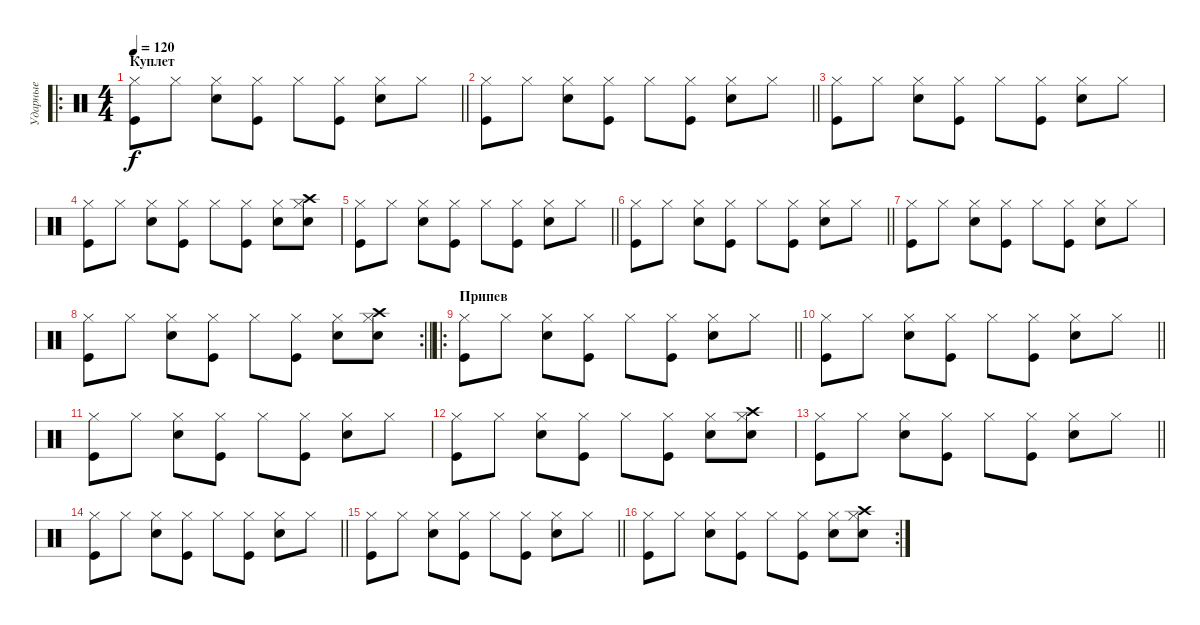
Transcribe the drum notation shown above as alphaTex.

\track ("Ударные" "Ударные") {instrument percussion}
\staff {score}
\articulation defaults
\ro
\ts (4 4)
\section ("" "Куплет")
\tempo 120
\clef neutral
\barLineRight lightlight
\ks c
("Kick (hit)" "Hi-Hat (closed)").8{dy f} "Hi-Hat (closed)".8 ("Electric Snare (hit)" "Hi-Hat (closed)").8 ("Kick (hit)" "Hi-Hat (closed)").8 "Hi-Hat (closed)".8 ("Kick (hit)" "Hi-Hat (closed)").8 ("Electric Snare (hit)" "Hi-Hat (closed)").8 "Hi-Hat (closed)".8 |
\barLineRight lightlight
("Kick (hit)" "Hi-Hat (closed)").8 "Hi-Hat (closed)".8 ("Electric Snare (hit)" "Hi-Hat (closed)").8 ("Kick (hit)" "Hi-Hat (closed)").8 "Hi-Hat (closed)".8 ("Kick (hit)" "Hi-Hat (closed)").8 ("Electric Snare (hit)" "Hi-Hat (closed)").8 "Hi-Hat (closed)".8 |
("Kick (hit)" "Hi-Hat (closed)").8 "Hi-Hat (closed)".8 ("Electric Snare (hit)" "Hi-Hat (closed)").8 ("Kick (hit)" "Hi-Hat (closed)").8 "Hi-Hat (closed)".8 ("Kick (hit)" "Hi-Hat (closed)").8 ("Electric Snare (hit)" "Hi-Hat (closed)").8 "Hi-Hat (closed)".8 |
("Kick (hit)" "Hi-Hat (closed)").8 "Hi-Hat (closed)".8 ("Electric Snare (hit)" "Hi-Hat (closed)").8 ("Kick (hit)" "Hi-Hat (closed)").8 "Hi-Hat (closed)".8 ("Kick (hit)" "Hi-Hat (closed)").8 ("Electric Snare (hit)" "Hi-Hat (closed)").8 ("Snare (hit) 2" "Crash high (hit)" "Hi-Hat (closed)").8 |
\barLineRight lightlight
("Kick (hit)" "Hi-Hat (closed)").8 "Hi-Hat (closed)".8 ("Electric Snare (hit)" "Hi-Hat (closed)").8 ("Kick (hit)" "Hi-Hat (closed)").8 "Hi-Hat (closed)".8 ("Kick (hit)" "Hi-Hat (closed)").8 ("Electric Snare (hit)" "Hi-Hat (closed)").8 "Hi-Hat (closed)".8 |
\barLineRight lightlight
("Kick (hit)" "Hi-Hat (closed)").8 "Hi-Hat (closed)".8 ("Electric Snare (hit)" "Hi-Hat (closed)").8 ("Kick (hit)" "Hi-Hat (closed)").8 "Hi-Hat (closed)".8 ("Kick (hit)" "Hi-Hat (closed)").8 ("Electric Snare (hit)" "Hi-Hat (closed)").8 "Hi-Hat (closed)".8 |
("Kick (hit)" "Hi-Hat (closed)").8 "Hi-Hat (closed)".8 ("Electric Snare (hit)" "Hi-Hat (closed)").8 ("Kick (hit)" "Hi-Hat (closed)").8 "Hi-Hat (closed)".8 ("Kick (hit)" "Hi-Hat (closed)").8 ("Electric Snare (hit)" "Hi-Hat (closed)").8 "Hi-Hat (closed)".8 |
\rc 2
\barLineRight lightlight
("Kick (hit)" "Hi-Hat (closed)").8 "Hi-Hat (closed)".8 ("Electric Snare (hit)" "Hi-Hat (closed)").8 ("Kick (hit)" "Hi-Hat (closed)").8 "Hi-Hat (closed)".8 ("Kick (hit)" "Hi-Hat (closed)").8 ("Electric Snare (hit)" "Hi-Hat (closed)").8 ("Snare (hit) 2" "Crash high (hit)" "Hi-Hat (closed)").8 |
\ro
\section ("" "Припев")
\barLineRight lightlight
("Kick (hit)" "Hi-Hat (closed)").8 "Hi-Hat (closed)".8 ("Electric Snare (hit)" "Hi-Hat (closed)").8 ("Kick (hit)" "Hi-Hat (closed)").8 "Hi-Hat (closed)".8 ("Kick (hit)" "Hi-Hat (closed)").8 ("Electric Snare (hit)" "Hi-Hat (closed)").8 "Hi-Hat (closed)".8 |
\barLineRight lightlight
("Kick (hit)" "Hi-Hat (closed)").8 "Hi-Hat (closed)".8 ("Electric Snare (hit)" "Hi-Hat (closed)").8 ("Kick (hit)" "Hi-Hat (closed)").8 "Hi-Hat (closed)".8 ("Kick (hit)" "Hi-Hat (closed)").8 ("Electric Snare (hit)" "Hi-Hat (closed)").8 "Hi-Hat (closed)".8 |
("Kick (hit)" "Hi-Hat (closed)").8 "Hi-Hat (closed)".8 ("Electric Snare (hit)" "Hi-Hat (closed)").8 ("Kick (hit)" "Hi-Hat (closed)").8 "Hi-Hat (closed)".8 ("Kick (hit)" "Hi-Hat (closed)").8 ("Electric Snare (hit)" "Hi-Hat (closed)").8 "Hi-Hat (closed)".8 |
("Kick (hit)" "Hi-Hat (closed)").8 "Hi-Hat (closed)".8 ("Electric Snare (hit)" "Hi-Hat (closed)").8 ("Kick (hit)" "Hi-Hat (closed)").8 "Hi-Hat (closed)".8 ("Kick (hit)" "Hi-Hat (closed)").8 ("Electric Snare (hit)" "Hi-Hat (closed)").8 ("Snare (hit) 2" "Crash high (hit)" "Hi-Hat (closed)").8 |
\barLineRight lightlight
("Kick (hit)" "Hi-Hat (closed)").8 "Hi-Hat (closed)".8 ("Electric Snare (hit)" "Hi-Hat (closed)").8 ("Kick (hit)" "Hi-Hat (closed)").8 "Hi-Hat (closed)".8 ("Kick (hit)" "Hi-Hat (closed)").8 ("Electric Snare (hit)" "Hi-Hat (closed)").8 "Hi-Hat (closed)".8 |
\barLineRight lightlight
("Kick (hit)" "Hi-Hat (closed)").8 "Hi-Hat (closed)".8 ("Electric Snare (hit)" "Hi-Hat (closed)").8 ("Kick (hit)" "Hi-Hat (closed)").8 "Hi-Hat (closed)".8 ("Kick (hit)" "Hi-Hat (closed)").8 ("Electric Snare (hit)" "Hi-Hat (closed)").8 "Hi-Hat (closed)".8 |
\barLineRight lightlight
("Kick (hit)" "Hi-Hat (closed)").8 "Hi-Hat (closed)".8 ("Electric Snare (hit)" "Hi-Hat (closed)").8 ("Kick (hit)" "Hi-Hat (closed)").8 "Hi-Hat (closed)".8 ("Kick (hit)" "Hi-Hat (closed)").8 ("Electric Snare (hit)" "Hi-Hat (closed)").8 "Hi-Hat (closed)".8 |
\rc 2
("Kick (hit)" "Hi-Hat (closed)").8 "Hi-Hat (closed)".8 ("Electric Snare (hit)" "Hi-Hat (closed)").8 ("Kick (hit)" "Hi-Hat (closed)").8 "Hi-Hat (closed)".8 ("Kick (hit)" "Hi-Hat (closed)").8 ("Electric Snare (hit)" "Hi-Hat (closed)").8 ("Snare (hit) 2" "Crash high (hit)" "Hi-Hat (closed)").8
